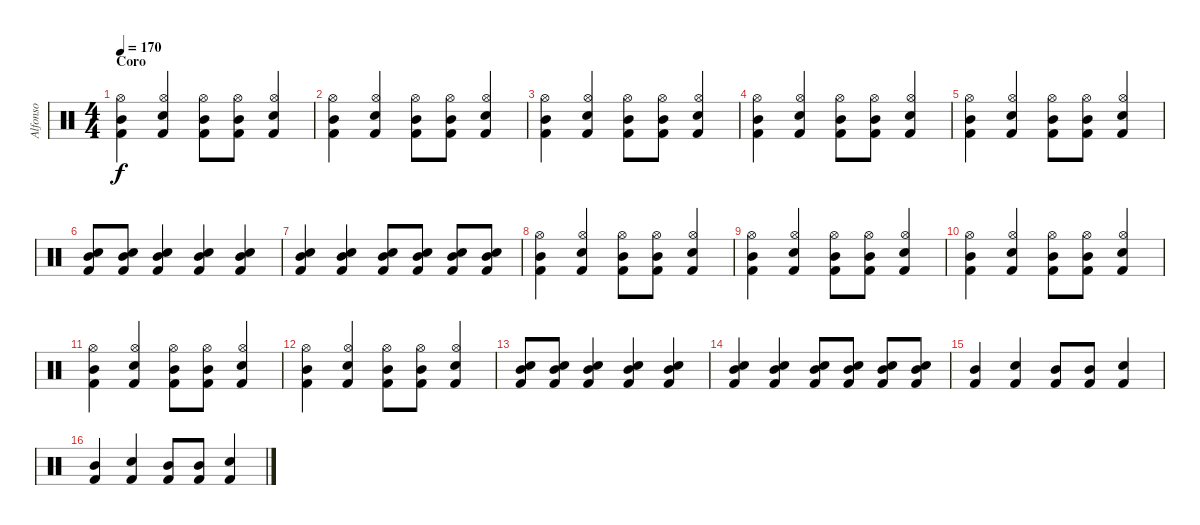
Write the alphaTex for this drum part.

\track ("Alfonso" "Alfonso") {instrument percussion}
\staff {score}
\articulation defaults
\ts (4 4)
\section ("" "Coro")
\tempo 170
\clef neutral
\ks c
("Kick (hit) 2" "Mid Tom (hit)" "Hi-Hat (open)").4{dy f} ("Kick (hit) 2" "Snare (hit) 2" "Hi-Hat (open)").4 ("Kick (hit) 2" "Mid Tom (hit)" "Hi-Hat (open)").8 ("Kick (hit) 2" "Mid Tom (hit)" "Hi-Hat (open)").8 ("Kick (hit) 2" "Snare (hit) 2" "Hi-Hat (open)").4 |
("Kick (hit) 2" "Mid Tom (hit)" "Hi-Hat (open)").4 ("Kick (hit) 2" "Snare (hit) 2" "Hi-Hat (open)").4 ("Kick (hit) 2" "Mid Tom (hit)" "Hi-Hat (open)").8 ("Kick (hit) 2" "Mid Tom (hit)" "Hi-Hat (open)").8 ("Kick (hit) 2" "Snare (hit) 2" "Hi-Hat (open)").4 |
("Kick (hit) 2" "Mid Tom (hit)" "Hi-Hat (open)").4 ("Kick (hit) 2" "Snare (hit) 2" "Hi-Hat (open)").4 ("Kick (hit) 2" "Mid Tom (hit)" "Hi-Hat (open)").8 ("Kick (hit) 2" "Mid Tom (hit)" "Hi-Hat (open)").8 ("Kick (hit) 2" "Snare (hit) 2" "Hi-Hat (open)").4 |
("Kick (hit) 2" "Mid Tom (hit)" "Hi-Hat (open)").4 ("Kick (hit) 2" "Snare (hit) 2" "Hi-Hat (open)").4 ("Kick (hit) 2" "Mid Tom (hit)" "Hi-Hat (open)").8 ("Kick (hit) 2" "Mid Tom (hit)" "Hi-Hat (open)").8 ("Kick (hit) 2" "Snare (hit) 2" "Hi-Hat (open)").4 |
("Kick (hit) 2" "Mid Tom (hit)" "Hi-Hat (open)").4 ("Kick (hit) 2" "Snare (hit) 2" "Hi-Hat (open)").4 ("Kick (hit) 2" "Mid Tom (hit)" "Hi-Hat (open)").8 ("Kick (hit) 2" "Mid Tom (hit)" "Hi-Hat (open)").8 ("Kick (hit) 2" "Snare (hit) 2" "Hi-Hat (open)").4 |
("Kick (hit) 2" "Snare (hit) 2" "Mid Tom (hit)").8 ("Kick (hit) 2" "Snare (hit) 2" "Mid Tom (hit)").8 ("Kick (hit) 2" "Snare (hit) 2" "Mid Tom (hit)").4 ("Kick (hit) 2" "Snare (hit) 2" "Mid Tom (hit)").4 ("Kick (hit) 2" "Snare (hit) 2" "Mid Tom (hit)").4 |
("Kick (hit) 2" "Snare (hit) 2" "Mid Tom (hit)").4 ("Kick (hit) 2" "Snare (hit) 2" "Mid Tom (hit)").4 ("Kick (hit) 2" "Snare (hit) 2" "Mid Tom (hit)").8 ("Kick (hit) 2" "Snare (hit) 2" "Mid Tom (hit)").8 ("Kick (hit) 2" "Snare (hit) 2" "Mid Tom (hit)").8 ("Kick (hit) 2" "Snare (hit) 2" "Mid Tom (hit)").8 |
("Kick (hit) 2" "Mid Tom (hit)" "Hi-Hat (open)").4 ("Kick (hit) 2" "Snare (hit) 2" "Hi-Hat (open)").4 ("Kick (hit) 2" "Mid Tom (hit)" "Hi-Hat (open)").8 ("Kick (hit) 2" "Mid Tom (hit)" "Hi-Hat (open)").8 ("Kick (hit) 2" "Snare (hit) 2" "Hi-Hat (open)").4 |
("Kick (hit) 2" "Mid Tom (hit)" "Hi-Hat (open)").4 ("Kick (hit) 2" "Snare (hit) 2" "Hi-Hat (open)").4 ("Kick (hit) 2" "Mid Tom (hit)" "Hi-Hat (open)").8 ("Kick (hit) 2" "Mid Tom (hit)" "Hi-Hat (open)").8 ("Kick (hit) 2" "Snare (hit) 2" "Hi-Hat (open)").4 |
("Kick (hit) 2" "Mid Tom (hit)" "Hi-Hat (open)").4 ("Kick (hit) 2" "Snare (hit) 2" "Hi-Hat (open)").4 ("Kick (hit) 2" "Mid Tom (hit)" "Hi-Hat (open)").8 ("Kick (hit) 2" "Mid Tom (hit)" "Hi-Hat (open)").8 ("Kick (hit) 2" "Snare (hit) 2" "Hi-Hat (open)").4 |
("Kick (hit) 2" "Mid Tom (hit)" "Hi-Hat (open)").4 ("Kick (hit) 2" "Snare (hit) 2" "Hi-Hat (open)").4 ("Kick (hit) 2" "Mid Tom (hit)" "Hi-Hat (open)").8 ("Kick (hit) 2" "Mid Tom (hit)" "Hi-Hat (open)").8 ("Kick (hit) 2" "Snare (hit) 2" "Hi-Hat (open)").4 |
("Kick (hit) 2" "Mid Tom (hit)" "Hi-Hat (open)").4 ("Kick (hit) 2" "Snare (hit) 2" "Hi-Hat (open)").4 ("Kick (hit) 2" "Mid Tom (hit)" "Hi-Hat (open)").8 ("Kick (hit) 2" "Mid Tom (hit)" "Hi-Hat (open)").8 ("Kick (hit) 2" "Snare (hit) 2" "Hi-Hat (open)").4 |
("Kick (hit) 2" "Snare (hit) 2" "Mid Tom (hit)").8 ("Kick (hit) 2" "Snare (hit) 2" "Mid Tom (hit)").8 ("Kick (hit) 2" "Snare (hit) 2" "Mid Tom (hit)").4 ("Kick (hit) 2" "Snare (hit) 2" "Mid Tom (hit)").4 ("Kick (hit) 2" "Snare (hit) 2" "Mid Tom (hit)").4 |
("Kick (hit) 2" "Snare (hit) 2" "Mid Tom (hit)").4 ("Kick (hit) 2" "Snare (hit) 2" "Mid Tom (hit)").4 ("Kick (hit) 2" "Snare (hit) 2" "Mid Tom (hit)").8 ("Kick (hit) 2" "Snare (hit) 2" "Mid Tom (hit)").8 ("Kick (hit) 2" "Snare (hit) 2" "Mid Tom (hit)").8 ("Kick (hit) 2" "Snare (hit) 2" "Mid Tom (hit)").8 |
("Kick (hit) 2" "Mid Tom (hit)").4 ("Kick (hit) 2" "Snare (hit) 2").4 ("Kick (hit) 2" "Mid Tom (hit)").8 ("Kick (hit) 2" "Mid Tom (hit)").8 ("Kick (hit) 2" "Snare (hit) 2").4 |
("Kick (hit) 2" "Mid Tom (hit)").4 ("Kick (hit) 2" "Snare (hit) 2").4 ("Kick (hit) 2" "Mid Tom (hit)").8 ("Kick (hit) 2" "Mid Tom (hit)").8 ("Kick (hit) 2" "Snare (hit) 2").4
